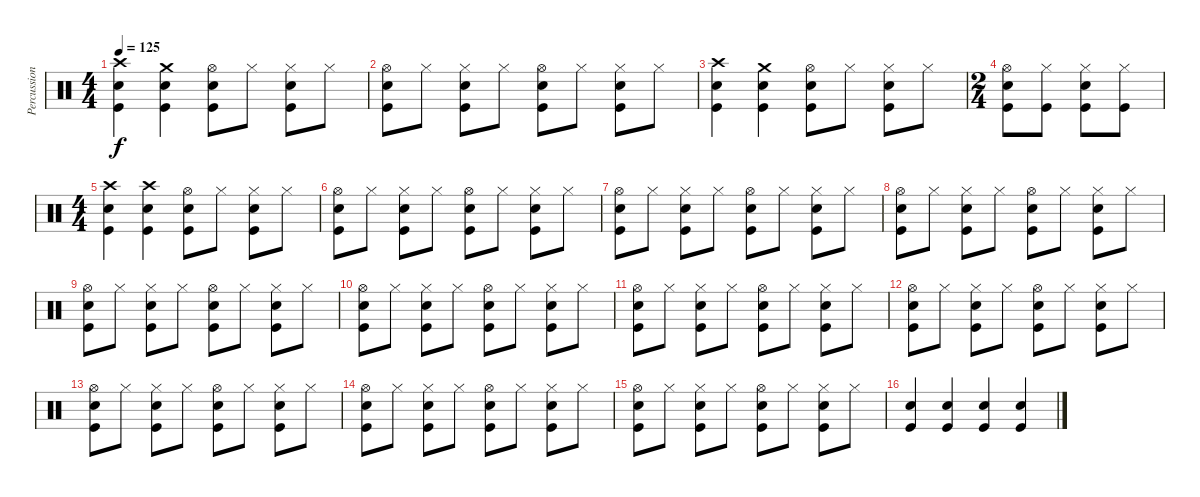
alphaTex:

\track ("Percussion" "Percussion") {instrument percussion}
\staff {score}
\articulation defaults
\ts (4 4)
\tempo 125
\clef neutral
\ks c
("Crash high (hit)" "Snare (hit) 2" "Kick (hit)").4{dy f} ("Crash medium (hit)" "Snare (hit) 2" "Kick (hit)").4 ("Hi-Hat (open)" "Snare (hit) 2" "Kick (hit)").8 "Hi-Hat (closed)".8 ("Hi-Hat (closed)" "Snare (hit) 2" "Kick (hit)").8 "Hi-Hat (closed)".8 |
("Hi-Hat (open)" "Snare (hit) 2" "Kick (hit)").8 "Hi-Hat (closed)".8 ("Hi-Hat (closed)" "Snare (hit) 2" "Kick (hit)").8 "Hi-Hat (closed)".8 ("Hi-Hat (open)" "Snare (hit) 2" "Kick (hit)").8 "Hi-Hat (closed)".8 ("Hi-Hat (closed)" "Snare (hit) 2" "Kick (hit)").8 "Hi-Hat (closed)".8 |
("Crash high (hit)" "Snare (hit) 2" "Kick (hit)").4 ("Crash medium (hit)" "Snare (hit) 2" "Kick (hit)").4 ("Hi-Hat (open)" "Snare (hit) 2" "Kick (hit)").8 "Hi-Hat (closed)".8 ("Hi-Hat (closed)" "Snare (hit) 2" "Kick (hit)").8 "Hi-Hat (closed)".8 |
\ts (2 4)
("Hi-Hat (open)" "Snare (hit) 2" "Kick (hit)").8 ("Hi-Hat (closed)" "Kick (hit)").8 ("Hi-Hat (closed)" "Snare (hit) 2" "Kick (hit)").8 ("Hi-Hat (closed)" "Kick (hit)").8 |
\ts (4 4)
("Crash high (hit)" "Snare (hit) 2" "Kick (hit)").4 ("Crash high (hit)" "Snare (hit) 2" "Kick (hit)").4 ("Hi-Hat (open)" "Snare (hit) 2" "Kick (hit)").8 "Hi-Hat (closed)".8 ("Hi-Hat (closed)" "Snare (hit) 2" "Kick (hit)").8 "Hi-Hat (closed)".8 |
("Hi-Hat (open)" "Snare (hit) 2" "Kick (hit)").8 "Hi-Hat (closed)".8 ("Hi-Hat (closed)" "Snare (hit) 2" "Kick (hit)").8 "Hi-Hat (closed)".8 ("Hi-Hat (open)" "Snare (hit) 2" "Kick (hit)").8 "Hi-Hat (closed)".8 ("Hi-Hat (closed)" "Snare (hit) 2" "Kick (hit)").8 "Hi-Hat (closed)".8 |
("Hi-Hat (open)" "Snare (hit) 2" "Kick (hit)").8 "Hi-Hat (closed)".8 ("Hi-Hat (closed)" "Snare (hit) 2" "Kick (hit)").8 "Hi-Hat (closed)".8 ("Hi-Hat (open)" "Snare (hit) 2" "Kick (hit)").8 "Hi-Hat (closed)".8 ("Hi-Hat (closed)" "Snare (hit) 2" "Kick (hit)").8 "Hi-Hat (closed)".8 |
("Hi-Hat (open)" "Snare (hit) 2" "Kick (hit)").8 "Hi-Hat (closed)".8 ("Hi-Hat (closed)" "Snare (hit) 2" "Kick (hit)").8 "Hi-Hat (closed)".8 ("Hi-Hat (open)" "Snare (hit) 2" "Kick (hit)").8 "Hi-Hat (closed)".8 ("Hi-Hat (closed)" "Snare (hit) 2" "Kick (hit)").8 "Hi-Hat (closed)".8 |
("Hi-Hat (open)" "Snare (hit) 2" "Kick (hit)").8 "Hi-Hat (closed)".8 ("Hi-Hat (closed)" "Snare (hit) 2" "Kick (hit)").8 "Hi-Hat (closed)".8 ("Hi-Hat (open)" "Snare (hit) 2" "Kick (hit)").8 "Hi-Hat (closed)".8 ("Hi-Hat (closed)" "Snare (hit) 2" "Kick (hit)").8 "Hi-Hat (closed)".8 |
("Hi-Hat (open)" "Snare (hit) 2" "Kick (hit)").8 "Hi-Hat (closed)".8 ("Hi-Hat (closed)" "Snare (hit) 2" "Kick (hit)").8 "Hi-Hat (closed)".8 ("Hi-Hat (open)" "Snare (hit) 2" "Kick (hit)").8 "Hi-Hat (closed)".8 ("Hi-Hat (closed)" "Snare (hit) 2" "Kick (hit)").8 "Hi-Hat (closed)".8 |
("Hi-Hat (open)" "Snare (hit) 2" "Kick (hit)").8 "Hi-Hat (closed)".8 ("Hi-Hat (closed)" "Snare (hit) 2" "Kick (hit)").8 "Hi-Hat (closed)".8 ("Hi-Hat (open)" "Snare (hit) 2" "Kick (hit)").8 "Hi-Hat (closed)".8 ("Hi-Hat (closed)" "Snare (hit) 2" "Kick (hit)").8 "Hi-Hat (closed)".8 |
("Hi-Hat (open)" "Snare (hit) 2" "Kick (hit)").8 "Hi-Hat (closed)".8 ("Hi-Hat (closed)" "Snare (hit) 2" "Kick (hit)").8 "Hi-Hat (closed)".8 ("Hi-Hat (open)" "Snare (hit) 2" "Kick (hit)").8 "Hi-Hat (closed)".8 ("Hi-Hat (closed)" "Snare (hit) 2" "Kick (hit)").8 "Hi-Hat (closed)".8 |
("Hi-Hat (open)" "Snare (hit) 2" "Kick (hit)").8 "Hi-Hat (closed)".8 ("Hi-Hat (closed)" "Snare (hit) 2" "Kick (hit)").8 "Hi-Hat (closed)".8 ("Hi-Hat (open)" "Snare (hit) 2" "Kick (hit)").8 "Hi-Hat (closed)".8 ("Hi-Hat (closed)" "Snare (hit) 2" "Kick (hit)").8 "Hi-Hat (closed)".8 |
("Hi-Hat (open)" "Snare (hit) 2" "Kick (hit)").8 "Hi-Hat (closed)".8 ("Hi-Hat (closed)" "Snare (hit) 2" "Kick (hit)").8 "Hi-Hat (closed)".8 ("Hi-Hat (open)" "Snare (hit) 2" "Kick (hit)").8 "Hi-Hat (closed)".8 ("Hi-Hat (closed)" "Snare (hit) 2" "Kick (hit)").8 "Hi-Hat (closed)".8 |
("Hi-Hat (open)" "Snare (hit) 2" "Kick (hit)").8 "Hi-Hat (closed)".8 ("Hi-Hat (closed)" "Snare (hit) 2" "Kick (hit)").8 "Hi-Hat (closed)".8 ("Hi-Hat (open)" "Snare (hit) 2" "Kick (hit)").8 "Hi-Hat (closed)".8 ("Hi-Hat (closed)" "Snare (hit) 2" "Kick (hit)").8 "Hi-Hat (closed)".8 |
("Snare (hit) 2" "Kick (hit)").4 ("Snare (hit) 2" "Kick (hit)").4 ("Snare (hit) 2" "Kick (hit)").4 ("Snare (hit) 2" "Kick (hit)").4
